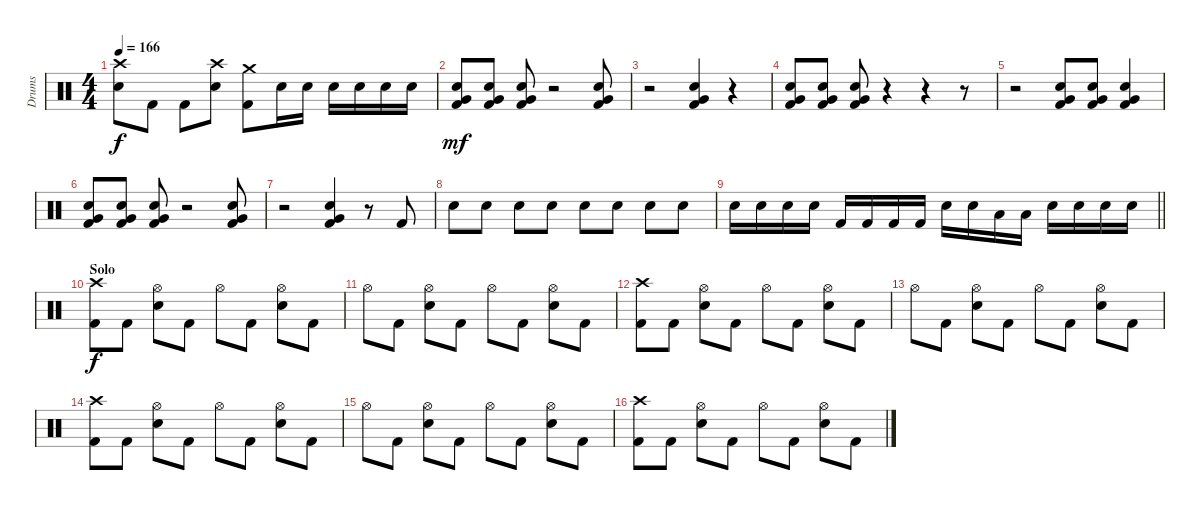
\track ("Drums" "Drums") {instrument percussion}
\staff {score}
\articulation defaults
\ts (4 4)
\tempo 166
\clef neutral
\ks c
("Crash high (hit)" "Electric Snare (hit)").8{dy f} "Kick (hit) 2".8 "Kick (hit) 2".8 ("Crash high (hit)" "Electric Snare (hit)").8 ("Crash medium (hit)" "Kick (hit) 2").8 "Electric Snare (hit)".16 "Electric Snare (hit)".16 "Electric Snare (hit)".16 "Electric Snare (hit)".16 "Electric Snare (hit)".16 "Electric Snare (hit)".16 |
("Electric Snare (hit)" "Very Low Tom (hit)" "Kick (hit) 2").8{dy mf} ("Electric Snare (hit)" "Very Low Tom (hit)" "Kick (hit) 2").8 ("Electric Snare (hit)" "Very Low Tom (hit)" "Kick (hit) 2").8 r.2 ("Electric Snare (hit)" "Very Low Tom (hit)" "Kick (hit) 2").8 |
r.2 ("Electric Snare (hit)" "Very Low Tom (hit)" "Kick (hit) 2").4 r.4 |
("Electric Snare (hit)" "Very Low Tom (hit)" "Kick (hit) 2").8 ("Electric Snare (hit)" "Very Low Tom (hit)" "Kick (hit) 2").8 ("Electric Snare (hit)" "Very Low Tom (hit)" "Kick (hit) 2").8 r.4 r.4 r.8 |
r.2 ("Electric Snare (hit)" "Very Low Tom (hit)" "Kick (hit) 2").8 ("Electric Snare (hit)" "Very Low Tom (hit)" "Kick (hit) 2").8 ("Electric Snare (hit)" "Very Low Tom (hit)" "Kick (hit) 2").4 |
("Electric Snare (hit)" "Very Low Tom (hit)" "Kick (hit) 2").8 ("Electric Snare (hit)" "Very Low Tom (hit)" "Kick (hit) 2").8 ("Electric Snare (hit)" "Very Low Tom (hit)" "Kick (hit) 2").8 r.2 ("Electric Snare (hit)" "Very Low Tom (hit)" "Kick (hit) 2").8 |
r.2 ("Electric Snare (hit)" "Very Low Tom (hit)" "Kick (hit) 2").4 r.8 "Kick (hit) 2".8 |
"Electric Snare (hit)".8 "Electric Snare (hit)".8 "Electric Snare (hit)".8 "Electric Snare (hit)".8 "Electric Snare (hit)".8 "Electric Snare (hit)".8 "Electric Snare (hit)".8 "Electric Snare (hit)".8 |
\barLineRight lightlight "Electric Snare (hit)".16 "Electric Snare (hit)".16 "Electric Snare (hit)".16 "Electric Snare (hit)".16 "Kick (hit) 2".16 "Kick (hit) 2".16 "Kick (hit) 2".16 "Kick (hit) 2".16 "Electric Snare (hit)".16 "Electric Snare (hit)".16 "Low Tom (hit)".16 "Low Tom (hit)".16 "Electric Snare (hit)".16 "Electric Snare (hit)".16 "Electric Snare (hit)".16 "Electric Snare (hit)".16
|
\section ("" "Solo")
("Crash high (hit)" "Kick (hit) 2").8{dy f} "Kick (hit) 2".8 ("Hi-Hat (open)" "Electric Snare (hit)").8 "Kick (hit) 2".8 "Hi-Hat (open)".8 "Kick (hit) 2".8 ("Hi-Hat (open)" "Electric Snare (hit)").8 "Kick (hit) 2".8 |
"Hi-Hat (open)".8 "Kick (hit) 2".8 ("Hi-Hat (open)" "Electric Snare (hit)").8 "Kick (hit) 2".8 "Hi-Hat (open)".8 "Kick (hit) 2".8 ("Hi-Hat (open)" "Electric Snare (hit)").8 "Kick (hit) 2".8 |
("Crash high (hit)" "Kick (hit) 2").8 "Kick (hit) 2".8 ("Hi-Hat (open)" "Electric Snare (hit)").8 "Kick (hit) 2".8 "Hi-Hat (open)".8 "Kick (hit) 2".8 ("Hi-Hat (open)" "Electric Snare (hit)").8 "Kick (hit) 2".8 |
"Hi-Hat (open)".8 "Kick (hit) 2".8 ("Hi-Hat (open)" "Electric Snare (hit)").8 "Kick (hit) 2".8 "Hi-Hat (open)".8 "Kick (hit) 2".8 ("Hi-Hat (open)" "Electric Snare (hit)").8 "Kick (hit) 2".8 |
("Crash high (hit)" "Kick (hit) 2").8 "Kick (hit) 2".8 ("Hi-Hat (open)" "Electric Snare (hit)").8 "Kick (hit) 2".8 "Hi-Hat (open)".8 "Kick (hit) 2".8 ("Hi-Hat (open)" "Electric Snare (hit)").8 "Kick (hit) 2".8 |
"Hi-Hat (open)".8 "Kick (hit) 2".8 ("Hi-Hat (open)" "Electric Snare (hit)").8 "Kick (hit) 2".8 "Hi-Hat (open)".8 "Kick (hit) 2".8 ("Hi-Hat (open)" "Electric Snare (hit)").8 "Kick (hit) 2".8 |
("Crash high (hit)" "Kick (hit) 2").8 "Kick (hit) 2".8 ("Hi-Hat (open)" "Electric Snare (hit)").8 "Kick (hit) 2".8 "Hi-Hat (open)".8 "Kick (hit) 2".8 ("Hi-Hat (open)" "Electric Snare (hit)").8 "Kick (hit) 2".8
